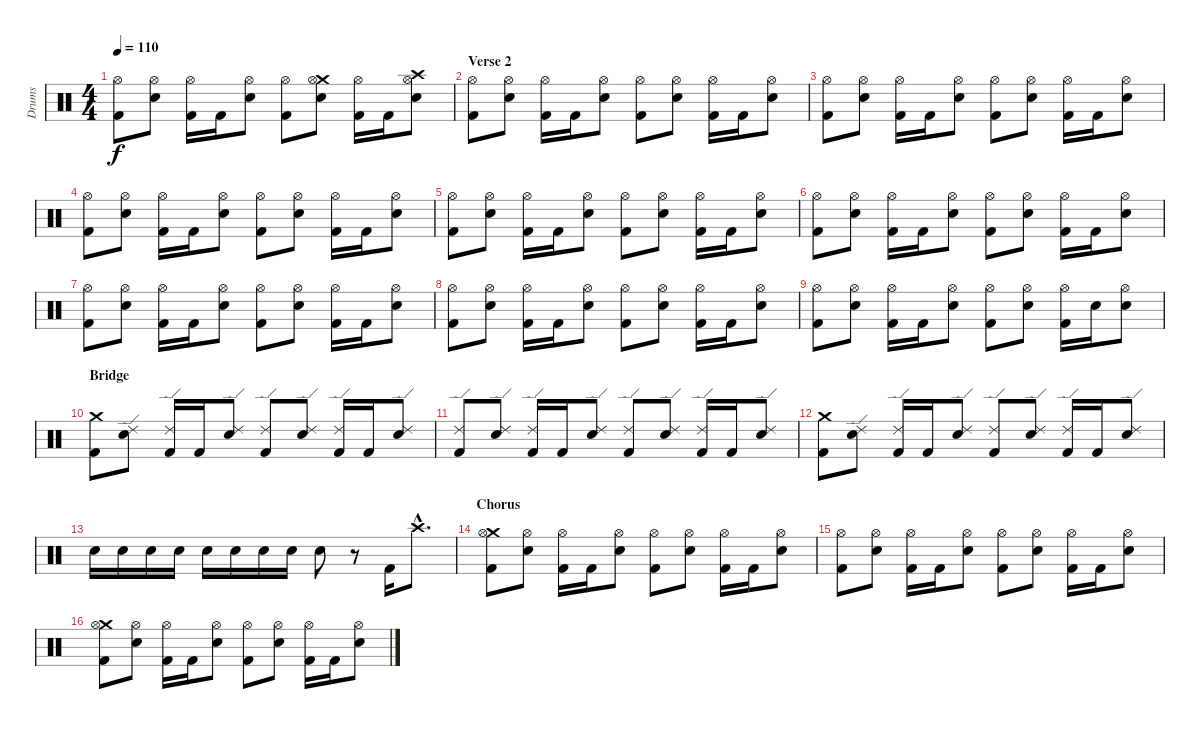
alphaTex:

\track ("Drums" "Drums") {instrument percussion}
\staff {score}
\articulation defaults
\ts (4 4)
\tempo 110
\clef neutral
\ks c
("Hi-Hat (open)" "Kick (hit) 2").8{dy f} ("Hi-Hat (open)" "Electric Snare (hit)").8 ("Hi-Hat (open)" "Kick (hit) 2").16 "Kick (hit) 2".16 ("Hi-Hat (open)" "Electric Snare (hit)").8 ("Hi-Hat (open)" "Kick (hit) 2").8 ("Crash medium (hit)" "Hi-Hat (open)" "Electric Snare (hit)").8 ("Hi-Hat (open)" "Kick (hit) 2").16 "Kick (hit) 2".16 ("Crash high (hit)" "Hi-Hat (open)" "Electric Snare (hit)").8 |
\section ("" "Verse 2")
("Hi-Hat (open)" "Kick (hit) 2").8 ("Hi-Hat (open)" "Electric Snare (hit)").8 ("Hi-Hat (open)" "Kick (hit) 2").16 "Kick (hit) 2".16 ("Hi-Hat (open)" "Electric Snare (hit)").8 ("Hi-Hat (open)" "Kick (hit) 2").8 ("Hi-Hat (open)" "Electric Snare (hit)").8 ("Hi-Hat (open)" "Kick (hit) 2").16 "Kick (hit) 2".16 ("Hi-Hat (open)" "Electric Snare (hit)").8 |
("Hi-Hat (open)" "Kick (hit) 2").8 ("Hi-Hat (open)" "Electric Snare (hit)").8 ("Hi-Hat (open)" "Kick (hit) 2").16 "Kick (hit) 2".16 ("Hi-Hat (open)" "Electric Snare (hit)").8 ("Hi-Hat (open)" "Kick (hit) 2").8 ("Hi-Hat (open)" "Electric Snare (hit)").8 ("Hi-Hat (open)" "Kick (hit) 2").16 "Kick (hit) 2".16 ("Hi-Hat (open)" "Electric Snare (hit)").8 |
("Hi-Hat (open)" "Kick (hit) 2").8 ("Hi-Hat (open)" "Electric Snare (hit)").8 ("Hi-Hat (open)" "Kick (hit) 2").16 "Kick (hit) 2".16 ("Hi-Hat (open)" "Electric Snare (hit)").8 ("Hi-Hat (open)" "Kick (hit) 2").8 ("Hi-Hat (open)" "Electric Snare (hit)").8 ("Hi-Hat (open)" "Kick (hit) 2").16 "Kick (hit) 2".16 ("Hi-Hat (open)" "Electric Snare (hit)").8 |
("Hi-Hat (open)" "Kick (hit) 2").8 ("Hi-Hat (open)" "Electric Snare (hit)").8 ("Hi-Hat (open)" "Kick (hit) 2").16 "Kick (hit) 2".16 ("Hi-Hat (open)" "Electric Snare (hit)").8 ("Hi-Hat (open)" "Kick (hit) 2").8 ("Hi-Hat (open)" "Electric Snare (hit)").8 ("Hi-Hat (open)" "Kick (hit) 2").16 "Kick (hit) 2".16 ("Hi-Hat (open)" "Electric Snare (hit)").8 |
("Hi-Hat (open)" "Kick (hit) 2").8 ("Hi-Hat (open)" "Electric Snare (hit)").8 ("Hi-Hat (open)" "Kick (hit) 2").16 "Kick (hit) 2".16 ("Hi-Hat (open)" "Electric Snare (hit)").8 ("Hi-Hat (open)" "Kick (hit) 2").8 ("Hi-Hat (open)" "Electric Snare (hit)").8 ("Hi-Hat (open)" "Kick (hit) 2").16 "Kick (hit) 2".16 ("Hi-Hat (open)" "Electric Snare (hit)").8 |
("Hi-Hat (open)" "Kick (hit) 2").8 ("Hi-Hat (open)" "Electric Snare (hit)").8 ("Hi-Hat (open)" "Kick (hit) 2").16 "Kick (hit) 2".16 ("Hi-Hat (open)" "Electric Snare (hit)").8 ("Hi-Hat (open)" "Kick (hit) 2").8 ("Hi-Hat (open)" "Electric Snare (hit)").8 ("Hi-Hat (open)" "Kick (hit) 2").16 "Kick (hit) 2".16 ("Hi-Hat (open)" "Electric Snare (hit)").8 |
("Hi-Hat (open)" "Kick (hit) 2").8 ("Hi-Hat (open)" "Electric Snare (hit)").8 ("Hi-Hat (open)" "Kick (hit) 2").16 "Kick (hit) 2".16 ("Hi-Hat (open)" "Electric Snare (hit)").8 ("Hi-Hat (open)" "Kick (hit) 2").8 ("Hi-Hat (open)" "Electric Snare (hit)").8 ("Hi-Hat (open)" "Kick (hit) 2").16 "Kick (hit) 2".16 ("Hi-Hat (open)" "Electric Snare (hit)").8 |
("Hi-Hat (open)" "Kick (hit) 2").8 ("Hi-Hat (open)" "Electric Snare (hit)").8 ("Hi-Hat (open)" "Kick (hit) 2").16 "Kick (hit) 2".16 ("Hi-Hat (open)" "Electric Snare (hit)").8 ("Hi-Hat (open)" "Kick (hit) 2").8 ("Hi-Hat (open)" "Electric Snare (hit)").8 ("Hi-Hat (open)" "Kick (hit) 2").16 "Electric Snare (hit)".16 ("Hi-Hat (open)" "Electric Snare (hit)").8 |
\section ("" "Bridge")
("Crash medium (hit)" "Kick (hit) 2").8 ("Ride (edge) 2" "Electric Snare (hit)").8 ("Ride (edge) 2" "Kick (hit) 2").16 "Kick (hit) 2".16 ("Ride (edge) 2" "Electric Snare (hit)").8 ("Ride (edge) 2" "Kick (hit) 2").8 ("Ride (edge) 2" "Electric Snare (hit)").8 ("Ride (edge) 2" "Kick (hit) 2").16 "Kick (hit) 2".16 ("Ride (edge) 2" "Electric Snare (hit)").8 |
("Ride (edge) 2" "Kick (hit) 2").8 ("Ride (edge) 2" "Electric Snare (hit)").8 ("Ride (edge) 2" "Kick (hit) 2").16 "Kick (hit) 2".16 ("Ride (edge) 2" "Electric Snare (hit)").8 ("Ride (edge) 2" "Kick (hit) 2").8 ("Ride (edge) 2" "Electric Snare (hit)").8 ("Ride (edge) 2" "Kick (hit) 2").16 "Kick (hit) 2".16 ("Ride (edge) 2" "Electric Snare (hit)").8 |
("Crash medium (hit)" "Kick (hit) 2").8 ("Ride (edge) 2" "Electric Snare (hit)").8 ("Ride (edge) 2" "Kick (hit) 2").16 "Kick (hit) 2".16 ("Ride (edge) 2" "Electric Snare (hit)").8 ("Ride (edge) 2" "Kick (hit) 2").8 ("Ride (edge) 2" "Electric Snare (hit)").8 ("Ride (edge) 2" "Kick (hit) 2").16 "Kick (hit) 2".16 ("Ride (edge) 2" "Electric Snare (hit)").8 |
"Electric Snare (hit)".16 "Electric Snare (hit)".16 "Electric Snare (hit)".16 "Electric Snare (hit)".16 "Electric Snare (hit)".16 "Electric Snare (hit)".16 "Electric Snare (hit)".16 "Electric Snare (hit)".16 "Electric Snare (hit)".8 r.8 "Kick (hit) 2".16 "Crash high (hit)"{hac}.8{d} |
\section ("" "Chorus")
("Crash medium (hit)" "Hi-Hat (open)" "Kick (hit) 2").8 ("Hi-Hat (open)" "Electric Snare (hit)").8 ("Hi-Hat (open)" "Kick (hit) 2").16 "Kick (hit) 2".16 ("Hi-Hat (open)" "Electric Snare (hit)").8 ("Hi-Hat (open)" "Kick (hit) 2").8 ("Hi-Hat (open)" "Electric Snare (hit)").8 ("Hi-Hat (open)" "Kick (hit) 2").16 "Kick (hit) 2".16 ("Hi-Hat (open)" "Electric Snare (hit)").8 |
("Hi-Hat (open)" "Kick (hit) 2").8 ("Hi-Hat (open)" "Electric Snare (hit)").8 ("Hi-Hat (open)" "Kick (hit) 2").16 "Kick (hit) 2".16 ("Hi-Hat (open)" "Electric Snare (hit)").8 ("Hi-Hat (open)" "Kick (hit) 2").8 ("Hi-Hat (open)" "Electric Snare (hit)").8 ("Hi-Hat (open)" "Kick (hit) 2").16 "Kick (hit) 2".16 ("Hi-Hat (open)" "Electric Snare (hit)").8 |
("Crash medium (hit)" "Hi-Hat (open)" "Kick (hit) 2").8 ("Hi-Hat (open)" "Electric Snare (hit)").8 ("Hi-Hat (open)" "Kick (hit) 2").16 "Kick (hit) 2".16 ("Hi-Hat (open)" "Electric Snare (hit)").8 ("Hi-Hat (open)" "Kick (hit) 2").8 ("Hi-Hat (open)" "Electric Snare (hit)").8 ("Hi-Hat (open)" "Kick (hit) 2").16 "Kick (hit) 2".16 ("Hi-Hat (open)" "Electric Snare (hit)").8
